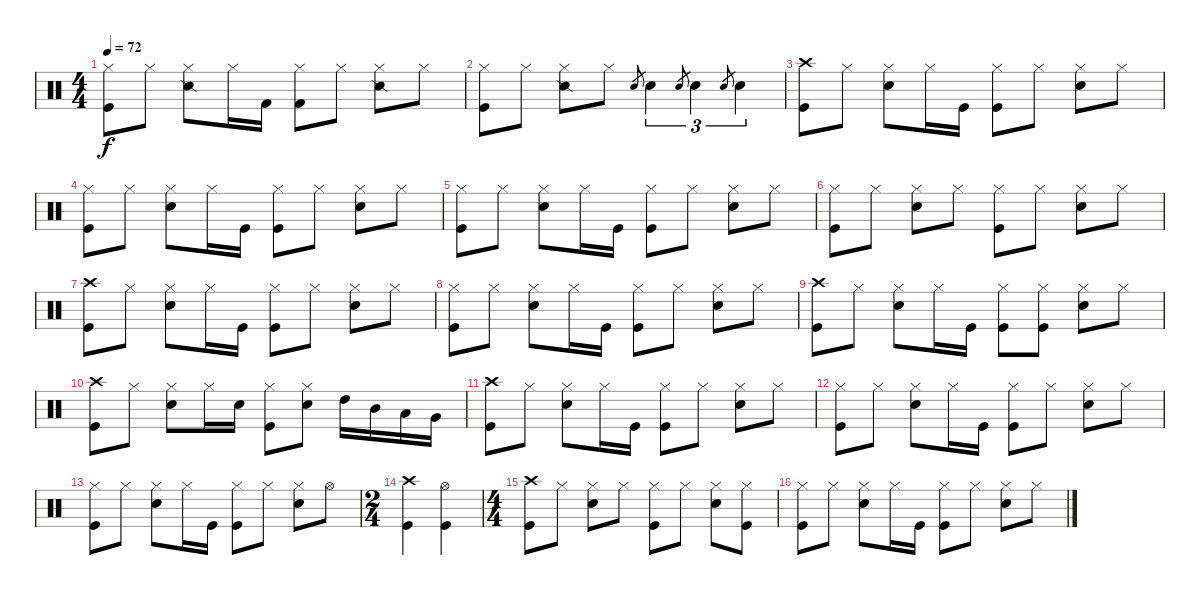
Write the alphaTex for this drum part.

\track "" {instrument percussion}
\staff {score}
\articulation defaults
\ts (4 4)
\tempo 72
\clef neutral
\ks c
("Kick (hit)" "Hi-Hat (closed)").8{dy f} "Hi-Hat (closed)".8 ("Snare (side stick) 2" "Hi-Hat (closed)").8 "Hi-Hat (closed)".16 "Kick (hit) 2".16 ("Kick (hit) 2" "Hi-Hat (closed)").8 "Hi-Hat (closed)".8 ("Snare (side stick) 2" "Hi-Hat (closed)").8 "Hi-Hat (closed)".8 |
("Kick (hit)" "Hi-Hat (closed)").8 "Hi-Hat (closed)".8 ("Snare (side stick) 2" "Hi-Hat (closed)").8 "Hi-Hat (closed)".8 "Electric Snare (hit)".8{gr} "Electric Snare (hit)".4{tu (3 2)} "Snare (hit) 2".8{gr} "Snare (hit) 2".4{tu (3 2)} "Snare (hit) 2".8{gr} "Snare (hit) 2".4{tu (3 2)} |
("Kick (hit)" "Crash high (hit)").8 "Hi-Hat (closed)".8 ("Electric Snare (hit)" "Hi-Hat (closed)").8 "Hi-Hat (closed)".16 "Kick (hit)".16 ("Kick (hit)" "Hi-Hat (closed)").8 "Hi-Hat (closed)".8 ("Snare (hit) 2" "Hi-Hat (closed)").8 "Hi-Hat (closed)".8 |
("Kick (hit)" "Hi-Hat (closed)").8 "Hi-Hat (closed)".8 ("Electric Snare (hit)" "Hi-Hat (closed)").8 "Hi-Hat (closed)".16 "Kick (hit)".16 ("Kick (hit)" "Hi-Hat (closed)").8 "Hi-Hat (closed)".8 ("Snare (hit) 2" "Hi-Hat (closed)").8 "Hi-Hat (closed)".8 |
("Kick (hit)" "Hi-Hat (closed)").8 "Hi-Hat (closed)".8 ("Electric Snare (hit)" "Hi-Hat (closed)").8 "Hi-Hat (closed)".16 "Kick (hit)".16 ("Kick (hit)" "Hi-Hat (closed)").8 "Hi-Hat (closed)".8 ("Snare (hit) 2" "Hi-Hat (closed)").8 "Hi-Hat (closed)".8 |
("Kick (hit)" "Hi-Hat (closed)").8 "Hi-Hat (closed)".8 ("Snare (hit) 2" "Hi-Hat (closed)").8 "Hi-Hat (closed)".8 ("Kick (hit)" "Hi-Hat (closed)").8 "Hi-Hat (closed)".8 ("Snare (hit) 2" "Hi-Hat (closed)").8 "Hi-Hat (closed)".8 |
("Kick (hit)" "Crash high (hit)").8 "Hi-Hat (closed)".8 ("Electric Snare (hit)" "Hi-Hat (closed)").8 "Hi-Hat (closed)".16 "Kick (hit)".16 ("Kick (hit)" "Hi-Hat (closed)").8 "Hi-Hat (closed)".8 ("Snare (hit) 2" "Hi-Hat (closed)").8 "Hi-Hat (closed)".8 |
("Kick (hit)" "Hi-Hat (closed)").8 "Hi-Hat (closed)".8 ("Electric Snare (hit)" "Hi-Hat (closed)").8 "Hi-Hat (closed)".16 "Kick (hit)".16 ("Kick (hit)" "Hi-Hat (closed)").8 "Hi-Hat (closed)".8 ("Snare (hit) 2" "Hi-Hat (closed)").8 "Hi-Hat (closed)".8 |
("Kick (hit)" "Crash high (hit)").8 "Hi-Hat (closed)".8 ("Electric Snare (hit)" "Hi-Hat (closed)").8 "Hi-Hat (closed)".16 "Kick (hit)".16 ("Kick (hit)" "Hi-Hat (closed)").8 ("Hi-Hat (closed)" "Kick (hit)").8 ("Snare (hit) 2" "Hi-Hat (closed)").8 "Hi-Hat (closed)".8 |
("Kick (hit)" "Crash high (hit)").8 "Hi-Hat (closed)".8 ("Electric Snare (hit)" "Hi-Hat (closed)").8 "Hi-Hat (closed)".16 "Snare (hit) 2".16 ("Kick (hit)" "Hi-Hat (closed)").8 ("Hi-Hat (closed)" "Snare (hit) 2").8 "High Tom (hit)".16 "Mid Tom (hit)".16 "Low Tom (hit)".16 "Very Low Tom (hit)".16 |
("Kick (hit)" "Crash high (hit)").8 "Hi-Hat (closed)".8 ("Electric Snare (hit)" "Hi-Hat (closed)").8 "Hi-Hat (closed)".16 "Kick (hit)".16 ("Kick (hit)" "Hi-Hat (closed)").8 "Hi-Hat (closed)".8 ("Snare (hit) 2" "Hi-Hat (closed)").8 "Hi-Hat (closed)".8 |
("Kick (hit)" "Hi-Hat (closed)").8 "Hi-Hat (closed)".8 ("Electric Snare (hit)" "Hi-Hat (closed)").8 "Hi-Hat (closed)".16 "Kick (hit)".16 ("Kick (hit)" "Hi-Hat (closed)").8 "Hi-Hat (closed)".8 ("Snare (hit) 2" "Hi-Hat (closed)").8 "Hi-Hat (closed)".8 |
("Kick (hit)" "Hi-Hat (closed)").8 "Hi-Hat (closed)".8 ("Electric Snare (hit)" "Hi-Hat (closed)").8 "Hi-Hat (closed)".16 "Kick (hit)".16 ("Kick (hit)" "Hi-Hat (closed)").8 "Hi-Hat (closed)".8 ("Snare (hit) 2" "Hi-Hat (closed)").8 "Hi-Hat (open)".8 |
\ts (2 4)
("Kick (hit)" "Crash high (hit)").4 ("Hi-Hat (open)" "Kick (hit)").4 |
\ts (4 4)
("Crash high (hit)" "Kick (hit)").8 "Hi-Hat (closed)".8 ("Hi-Hat (closed)" "Snare (hit) 2").8 "Hi-Hat (closed)".8 ("Kick (hit)" "Hi-Hat (closed)").8 "Hi-Hat (closed)".8 ("Hi-Hat (closed)" "Snare (hit) 2").8 ("Hi-Hat (closed)" "Kick (hit)").8 |
("Kick (hit)" "Hi-Hat (closed)").8 "Hi-Hat (closed)".8 ("Electric Snare (hit)" "Hi-Hat (closed)").8 "Hi-Hat (closed)".16 "Kick (hit)".16 ("Kick (hit)" "Hi-Hat (closed)").8 "Hi-Hat (closed)".8 ("Snare (hit) 2" "Hi-Hat (closed)").8 "Hi-Hat (closed)".8
